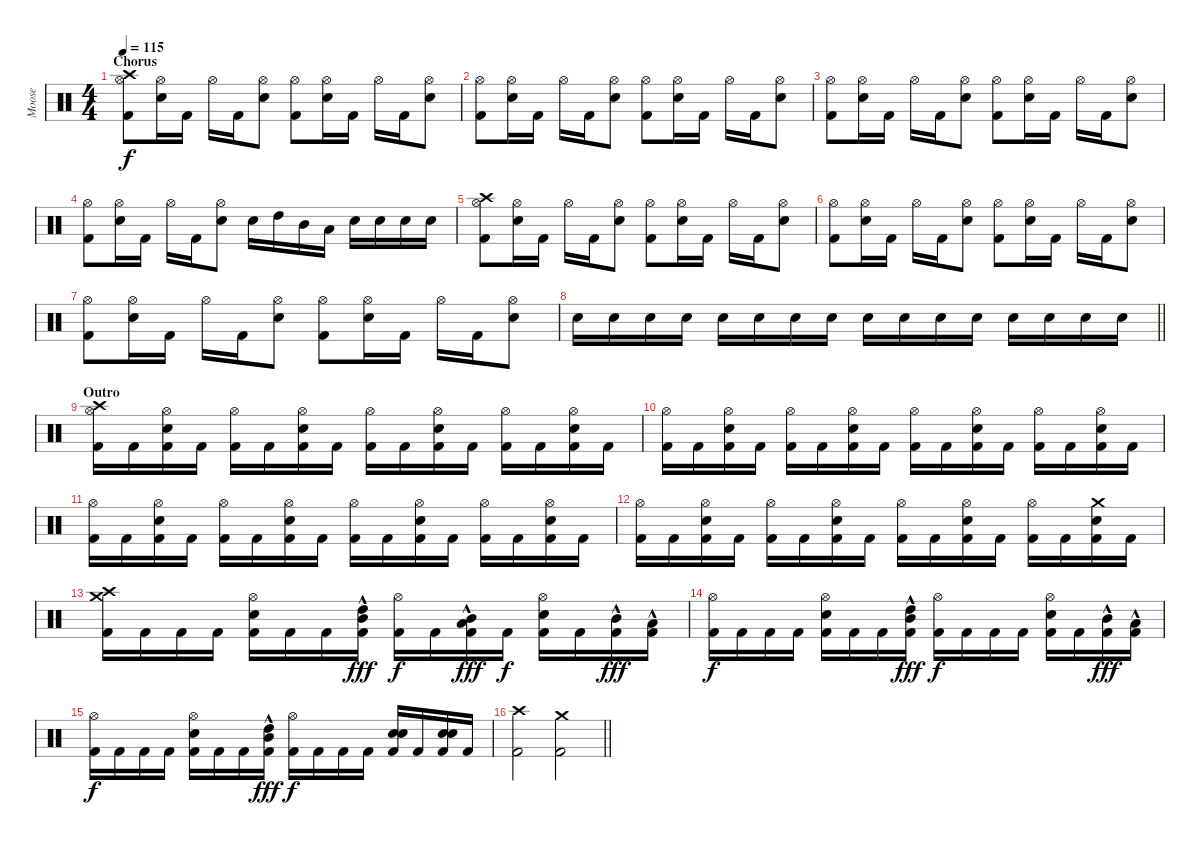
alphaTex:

\track ("Moose" "Moose") {instrument percussion}
\staff {score}
\articulation defaults
\ts (4 4)
\section ("" "Chorus")
\tempo 115
\clef neutral
\ks c
("Crash high (hit)" "Hi-Hat (open)" "Kick (hit) 2").8{dy f} ("Hi-Hat (open)" "Electric Snare (hit)").16 "Kick (hit) 2".16 "Hi-Hat (open)".16 "Kick (hit) 2".16 ("Hi-Hat (open)" "Electric Snare (hit)").8 ("Hi-Hat (open)" "Kick (hit) 2").8 ("Hi-Hat (open)" "Electric Snare (hit)").16 "Kick (hit) 2".16 "Hi-Hat (open)".16 "Kick (hit) 2".16 ("Hi-Hat (open)" "Electric Snare (hit)").8 |
("Hi-Hat (open)" "Kick (hit) 2").8 ("Hi-Hat (open)" "Electric Snare (hit)").16 "Kick (hit) 2".16 "Hi-Hat (open)".16 "Kick (hit) 2".16 ("Hi-Hat (open)" "Electric Snare (hit)").8 ("Hi-Hat (open)" "Kick (hit) 2").8 ("Hi-Hat (open)" "Electric Snare (hit)").16 "Kick (hit) 2".16 "Hi-Hat (open)".16 "Kick (hit) 2".16 ("Hi-Hat (open)" "Electric Snare (hit)").8 |
("Hi-Hat (open)" "Kick (hit) 2").8 ("Hi-Hat (open)" "Electric Snare (hit)").16 "Kick (hit) 2".16 "Hi-Hat (open)".16 "Kick (hit) 2".16 ("Hi-Hat (open)" "Electric Snare (hit)").8 ("Hi-Hat (open)" "Kick (hit) 2").8 ("Hi-Hat (open)" "Electric Snare (hit)").16 "Kick (hit) 2".16 "Hi-Hat (open)".16 "Kick (hit) 2".16 ("Hi-Hat (open)" "Electric Snare (hit)").8 |
("Hi-Hat (open)" "Kick (hit) 2").8 ("Hi-Hat (open)" "Electric Snare (hit)").16 "Kick (hit) 2".16 "Hi-Hat (open)".16 "Kick (hit) 2".16 ("Hi-Hat (open)" "Electric Snare (hit)").8 "Electric Snare (hit)".16 "High Tom (hit)".16 "Mid Tom (hit)".16 "Low Tom (hit)".16 "Electric Snare (hit)".16 "Electric Snare (hit)".16 "Electric Snare (hit)".16 "Electric Snare (hit)".16 |
("Crash high (hit)" "Hi-Hat (open)" "Kick (hit) 2").8 ("Hi-Hat (open)" "Electric Snare (hit)").16 "Kick (hit) 2".16 "Hi-Hat (open)".16 "Kick (hit) 2".16 ("Hi-Hat (open)" "Electric Snare (hit)").8 ("Hi-Hat (open)" "Kick (hit) 2").8 ("Hi-Hat (open)" "Electric Snare (hit)").16 "Kick (hit) 2".16 "Hi-Hat (open)".16 "Kick (hit) 2".16 ("Hi-Hat (open)" "Electric Snare (hit)").8 |
("Hi-Hat (open)" "Kick (hit) 2").8 ("Hi-Hat (open)" "Electric Snare (hit)").16 "Kick (hit) 2".16 "Hi-Hat (open)".16 "Kick (hit) 2".16 ("Hi-Hat (open)" "Electric Snare (hit)").8 ("Hi-Hat (open)" "Kick (hit) 2").8 ("Hi-Hat (open)" "Electric Snare (hit)").16 "Kick (hit) 2".16 "Hi-Hat (open)".16 "Kick (hit) 2".16 ("Hi-Hat (open)" "Electric Snare (hit)").8 |
("Hi-Hat (open)" "Kick (hit) 2").8 ("Hi-Hat (open)" "Electric Snare (hit)").16 "Kick (hit) 2".16 "Hi-Hat (open)".16 "Kick (hit) 2".16 ("Hi-Hat (open)" "Electric Snare (hit)").8 ("Hi-Hat (open)" "Kick (hit) 2").8 ("Hi-Hat (open)" "Electric Snare (hit)").16 "Kick (hit) 2".16 "Hi-Hat (open)".16 "Kick (hit) 2".16 ("Hi-Hat (open)" "Electric Snare (hit)").8 |
\barLineRight lightlight "Electric Snare (hit)".16 "Electric Snare (hit)".16 "Electric Snare (hit)".16 "Electric Snare (hit)".16 "Electric Snare (hit)".16 "Electric Snare (hit)".16 "Electric Snare (hit)".16 "Electric Snare (hit)".16 "Electric Snare (hit)".16 "Electric Snare (hit)".16 "Electric Snare (hit)".16 "Electric Snare (hit)".16 "Electric Snare (hit)".16 "Electric Snare (hit)".16 "Electric Snare (hit)".16 "Electric Snare (hit)".16
|
\section ("" "Outro")
("Crash high (hit)" "Hi-Hat (open)" "Kick (hit) 2").16 "Kick (hit) 2".16 ("Hi-Hat (open)" "Electric Snare (hit)" "Kick (hit) 2").16 "Kick (hit) 2".16 ("Hi-Hat (open)" "Kick (hit) 2").16 "Kick (hit) 2".16 ("Hi-Hat (open)" "Electric Snare (hit)" "Kick (hit) 2").16 "Kick (hit) 2".16 ("Hi-Hat (open)" "Kick (hit) 2").16 "Kick (hit) 2".16 ("Hi-Hat (open)" "Electric Snare (hit)" "Kick (hit) 2").16 "Kick (hit) 2".16 ("Hi-Hat (open)" "Kick (hit) 2").16 "Kick (hit) 2".16 ("Hi-Hat (open)" "Electric Snare (hit)" "Kick (hit) 2").16 "Kick (hit) 2".16 |
("Hi-Hat (open)" "Kick (hit) 2").16 "Kick (hit) 2".16 ("Hi-Hat (open)" "Electric Snare (hit)" "Kick (hit) 2").16 "Kick (hit) 2".16 ("Hi-Hat (open)" "Kick (hit) 2").16 "Kick (hit) 2".16 ("Hi-Hat (open)" "Electric Snare (hit)" "Kick (hit) 2").16 "Kick (hit) 2".16 ("Hi-Hat (open)" "Kick (hit) 2").16 "Kick (hit) 2".16 ("Hi-Hat (open)" "Electric Snare (hit)" "Kick (hit) 2").16 "Kick (hit) 2".16 ("Hi-Hat (open)" "Kick (hit) 2").16 "Kick (hit) 2".16 ("Hi-Hat (open)" "Electric Snare (hit)" "Kick (hit) 2").16 "Kick (hit) 2".16 |
("Hi-Hat (open)" "Kick (hit) 2").16 "Kick (hit) 2".16 ("Hi-Hat (open)" "Electric Snare (hit)" "Kick (hit) 2").16 "Kick (hit) 2".16 ("Hi-Hat (open)" "Kick (hit) 2").16 "Kick (hit) 2".16 ("Hi-Hat (open)" "Electric Snare (hit)" "Kick (hit) 2").16 "Kick (hit) 2".16 ("Hi-Hat (open)" "Kick (hit) 2").16 "Kick (hit) 2".16 ("Hi-Hat (open)" "Electric Snare (hit)" "Kick (hit) 2").16 "Kick (hit) 2".16 ("Hi-Hat (open)" "Kick (hit) 2").16 "Kick (hit) 2".16 ("Hi-Hat (open)" "Electric Snare (hit)" "Kick (hit) 2").16 "Kick (hit) 2".16 |
("Hi-Hat (open)" "Kick (hit) 2").16 "Kick (hit) 2".16 ("Hi-Hat (open)" "Electric Snare (hit)" "Kick (hit) 2").16 "Kick (hit) 2".16 ("Hi-Hat (open)" "Kick (hit) 2").16 "Kick (hit) 2".16 ("Hi-Hat (open)" "Electric Snare (hit)" "Kick (hit) 2").16 "Kick (hit) 2".16 ("Hi-Hat (open)" "Kick (hit) 2").16 "Kick (hit) 2".16 ("Hi-Hat (open)" "Electric Snare (hit)" "Kick (hit) 2").16 "Kick (hit) 2".16 ("Hi-Hat (open)" "Kick (hit) 2").16 "Kick (hit) 2".16 ("Crash medium (hit)" "Electric Snare (hit)" "Kick (hit) 2").16 "Kick (hit) 2".16 |
("Crash medium (hit)" "Crash high (hit)" "Kick (hit) 2").16 "Kick (hit) 2".16 "Kick (hit) 2".16 "Kick (hit) 2".16 ("Hi-Hat (open)" "Electric Snare (hit)" "Kick (hit) 2").16 "Kick (hit) 2".16 "Kick (hit) 2".16 ("High Tom (hit)"{hac} "Mid Tom (hit)"{hac} "Kick (hit) 2").16{dy fff} ("Hi-Hat (open)" "Kick (hit) 2").16{dy f} "Kick (hit) 2".16 ("Mid Tom (hit)"{hac} "Low Tom (hit)"{hac} "Kick (hit) 2").16{dy fff} "Kick (hit) 2".16{dy f} ("Hi-Hat (open)" "Electric Snare (hit)" "Kick (hit) 2").16 "Kick (hit) 2".16 ("Mid Tom (hit)"{hac} "Kick (hit) 2").16{dy fff} ("Low Tom (hit)"{hac} "Kick (hit) 2").16 |
("Hi-Hat (open)" "Kick (hit) 2").16{dy f} "Kick (hit) 2".16 "Kick (hit) 2".16 "Kick (hit) 2".16 ("Hi-Hat (open)" "Electric Snare (hit)" "Kick (hit) 2").16 "Kick (hit) 2".16 "Kick (hit) 2".16 ("High Tom (hit)"{hac} "Mid Tom (hit)"{hac} "Kick (hit) 2").16{dy fff} ("Hi-Hat (open)" "Kick (hit) 2").16{dy f} "Kick (hit) 2".16 "Kick (hit) 2".16 "Kick (hit) 2".16 ("Hi-Hat (open)" "Electric Snare (hit)" "Kick (hit) 2").16 "Kick (hit) 2".16 ("Mid Tom (hit)"{hac} "Kick (hit) 2").16{dy fff} ("Low Tom (hit)"{hac} "Kick (hit) 2").16 |
("Hi-Hat (open)" "Kick (hit) 2").16{dy f} "Kick (hit) 2".16 "Kick (hit) 2".16 "Kick (hit) 2".16 ("Hi-Hat (open)" "Electric Snare (hit)" "Kick (hit) 2").16 "Kick (hit) 2".16 "Kick (hit) 2".16 ("High Tom (hit)"{hac} "Mid Tom (hit)"{hac} "Kick (hit) 2").16{dy fff} ("Hi-Hat (open)" "Kick (hit) 2").16{dy f} "Kick (hit) 2".16 "Kick (hit) 2".16 "Kick (hit) 2".16 ("Electric Snare (hit)" "Electric Snare (hit)" "Kick (hit) 2").16 "Kick (hit) 2".16 ("Electric Snare (hit)" "Electric Snare (hit)" "Kick (hit) 2").16 "Kick (hit) 2".16 |
\barLineRight lightlight
("Crash high (hit)" "Kick (hit) 2").2 ("Crash medium (hit)" "Kick (hit) 2").2
